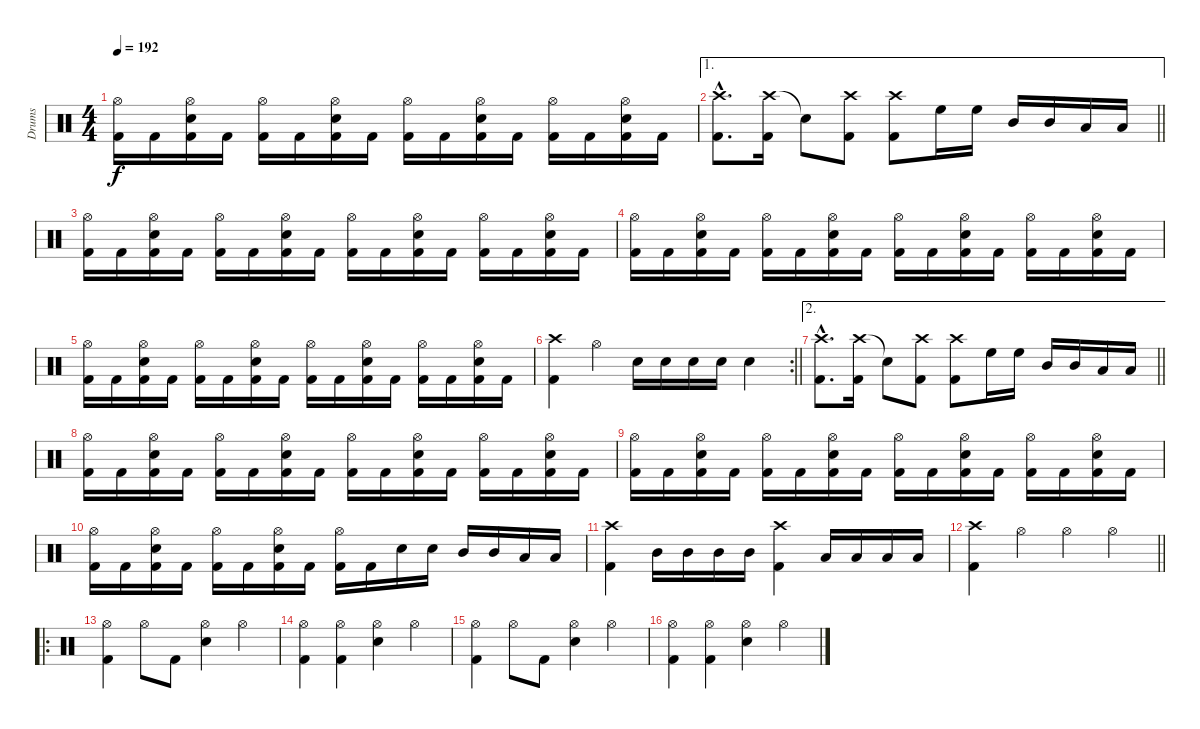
\track ("Drums" "Drums") {instrument percussion}
\staff {score}
\articulation defaults
\ts (4 4)
\tempo 192
\clef neutral
\ks c
("Hi-Hat (open)" "Kick (hit) 2").16{dy f} "Kick (hit) 2".16 ("Hi-Hat (open)" "Snare (hit) 2" "Kick (hit) 2").16 "Kick (hit) 2".16 ("Hi-Hat (open)" "Kick (hit) 2").16 "Kick (hit) 2".16 ("Hi-Hat (open)" "Snare (hit) 2" "Kick (hit) 2").16 "Kick (hit) 2".16 ("Hi-Hat (open)" "Kick (hit) 2").16 "Kick (hit) 2".16 ("Hi-Hat (open)" "Snare (hit) 2" "Kick (hit) 2").16 "Kick (hit) 2".16 ("Hi-Hat (open)" "Kick (hit) 2").16 "Kick (hit) 2".16 ("Hi-Hat (open)" "Snare (hit) 2" "Kick (hit) 2").16 "Kick (hit) 2".16 |
\ae 1
\barLineRight lightlight
("Crash high (hit)"{hac} "Kick (hit) 2"{hac}).8{d} ("Crash high (hit)" "Kick (hit) 2").16 "Snare (hit)"{t}.8 ("Crash high (hit)" "Kick (hit) 2").8 ("Crash high (hit)" "Kick (hit) 2").8 "High Floor Tom (hit)".16 "High Floor Tom (hit)".16 "Mid Tom (hit)".16 "Mid Tom (hit)".16 "Low Floor Tom (hit)".16 "Low Floor Tom (hit)".16 |
("Hi-Hat (open)" "Kick (hit) 2").16 "Kick (hit) 2".16 ("Hi-Hat (open)" "Snare (hit) 2" "Kick (hit) 2").16 "Kick (hit) 2".16 ("Hi-Hat (open)" "Kick (hit) 2").16 "Kick (hit) 2".16 ("Hi-Hat (open)" "Snare (hit) 2" "Kick (hit) 2").16 "Kick (hit) 2".16 ("Hi-Hat (open)" "Kick (hit) 2").16 "Kick (hit) 2".16 ("Hi-Hat (open)" "Snare (hit) 2" "Kick (hit) 2").16 "Kick (hit) 2".16 ("Hi-Hat (open)" "Kick (hit) 2").16 "Kick (hit) 2".16 ("Hi-Hat (open)" "Snare (hit) 2" "Kick (hit) 2").16 "Kick (hit) 2".16 |
("Hi-Hat (open)" "Kick (hit) 2").16 "Kick (hit) 2".16 ("Hi-Hat (open)" "Snare (hit) 2" "Kick (hit) 2").16 "Kick (hit) 2".16 ("Hi-Hat (open)" "Kick (hit) 2").16 "Kick (hit) 2".16 ("Hi-Hat (open)" "Snare (hit) 2" "Kick (hit) 2").16 "Kick (hit) 2".16 ("Hi-Hat (open)" "Kick (hit) 2").16 "Kick (hit) 2".16 ("Hi-Hat (open)" "Snare (hit) 2" "Kick (hit) 2").16 "Kick (hit) 2".16 ("Hi-Hat (open)" "Kick (hit) 2").16 "Kick (hit) 2".16 ("Hi-Hat (open)" "Snare (hit) 2" "Kick (hit) 2").16 "Kick (hit) 2".16 |
("Hi-Hat (open)" "Kick (hit) 2").16 "Kick (hit) 2".16 ("Hi-Hat (open)" "Snare (hit) 2" "Kick (hit) 2").16 "Kick (hit) 2".16 ("Hi-Hat (open)" "Kick (hit) 2").16 "Kick (hit) 2".16 ("Hi-Hat (open)" "Snare (hit) 2" "Kick (hit) 2").16 "Kick (hit) 2".16 ("Hi-Hat (open)" "Kick (hit) 2").16 "Kick (hit) 2".16 ("Hi-Hat (open)" "Snare (hit) 2" "Kick (hit) 2").16 "Kick (hit) 2".16 ("Hi-Hat (open)" "Kick (hit) 2").16 "Kick (hit) 2".16 ("Hi-Hat (open)" "Snare (hit) 2" "Kick (hit) 2").16 "Kick (hit) 2".16 |
\rc 2
\barLineRight lightlight
("Crash high (hit)" "Kick (hit) 2").4 "Hi-Hat (open)".4 "Snare (hit) 2".16 "Snare (hit) 2".16 "Snare (hit) 2".16 "Snare (hit) 2".16 "Snare (hit) 2".4 |
\ae 2
\barLineRight lightlight
("Crash high (hit)"{hac} "Kick (hit) 2"{hac}).8{d} ("Crash high (hit)" "Kick (hit) 2").16 "Snare (hit)"{t}.8 ("Crash high (hit)" "Kick (hit) 2").8 ("Crash high (hit)" "Kick (hit) 2").8 "High Floor Tom (hit)".16 "High Floor Tom (hit)".16 "Mid Tom (hit)".16 "Mid Tom (hit)".16 "Low Floor Tom (hit)".16 "Low Floor Tom (hit)".16 |
("Hi-Hat (open)" "Kick (hit) 2").16 "Kick (hit) 2".16 ("Hi-Hat (open)" "Snare (hit) 2" "Kick (hit) 2").16 "Kick (hit) 2".16 ("Hi-Hat (open)" "Kick (hit) 2").16 "Kick (hit) 2".16 ("Hi-Hat (open)" "Snare (hit) 2" "Kick (hit) 2").16 "Kick (hit) 2".16 ("Hi-Hat (open)" "Kick (hit) 2").16 "Kick (hit) 2".16 ("Hi-Hat (open)" "Snare (hit) 2" "Kick (hit) 2").16 "Kick (hit) 2".16 ("Hi-Hat (open)" "Kick (hit) 2").16 "Kick (hit) 2".16 ("Hi-Hat (open)" "Snare (hit) 2" "Kick (hit) 2").16 "Kick (hit) 2".16 |
("Hi-Hat (open)" "Kick (hit) 2").16 "Kick (hit) 2".16 ("Hi-Hat (open)" "Snare (hit) 2" "Kick (hit) 2").16 "Kick (hit) 2".16 ("Hi-Hat (open)" "Kick (hit) 2").16 "Kick (hit) 2".16 ("Hi-Hat (open)" "Snare (hit) 2" "Kick (hit) 2").16 "Kick (hit) 2".16 ("Hi-Hat (open)" "Kick (hit) 2").16 "Kick (hit) 2".16 ("Hi-Hat (open)" "Snare (hit) 2" "Kick (hit) 2").16 "Kick (hit) 2".16 ("Hi-Hat (open)" "Kick (hit) 2").16 "Kick (hit) 2".16 ("Hi-Hat (open)" "Snare (hit) 2" "Kick (hit) 2").16 "Kick (hit) 2".16 |
("Hi-Hat (open)" "Kick (hit) 2").16 "Kick (hit) 2".16 ("Hi-Hat (open)" "Snare (hit) 2" "Kick (hit) 2").16 "Kick (hit) 2".16 ("Hi-Hat (open)" "Kick (hit) 2").16 "Kick (hit) 2".16 ("Hi-Hat (open)" "Snare (hit) 2" "Kick (hit) 2").16 "Kick (hit) 2".16 ("Hi-Hat (open)" "Kick (hit) 2").16 "Kick (hit) 2".16 "Snare (hit) 2".16 "Snare (hit) 2".16 "Mid Tom (hit)".16 "Mid Tom (hit)".16 "Low Floor Tom (hit)".16 "Low Floor Tom (hit)".16 |
("Crash high (hit)" "Kick (hit) 2").4 "Mid Tom (hit)".16 "Mid Tom (hit)".16 "Mid Tom (hit)".16 "Mid Tom (hit)".16 ("Crash high (hit)" "Kick (hit) 2").4 "Low Floor Tom (hit)".16 "Low Floor Tom (hit)".16 "Low Floor Tom (hit)".16 "Low Floor Tom (hit)".16 |
\barLineRight lightlight
("Crash high (hit)" "Kick (hit) 2").4 "Hi-Hat (open)".4 "Hi-Hat (open)".4 "Hi-Hat (open)".4 |
\ro
("Hi-Hat (open)" "Kick (hit) 2").4 "Hi-Hat (open)".8 "Kick (hit) 2".8 ("Hi-Hat (open)" "Snare (hit) 2").4 "Hi-Hat (open)".4 |
("Hi-Hat (open)" "Kick (hit) 2").4 ("Hi-Hat (open)" "Kick (hit) 2").4 ("Hi-Hat (open)" "Snare (hit) 2").4 "Hi-Hat (open)".4 |
("Hi-Hat (open)" "Kick (hit) 2").4 "Hi-Hat (open)".8 "Kick (hit) 2".8 ("Hi-Hat (open)" "Snare (hit) 2").4 "Hi-Hat (open)".4 |
("Hi-Hat (open)" "Kick (hit) 2").4 ("Hi-Hat (open)" "Kick (hit) 2").4 ("Hi-Hat (open)" "Snare (hit) 2").4 "Hi-Hat (open)".4
